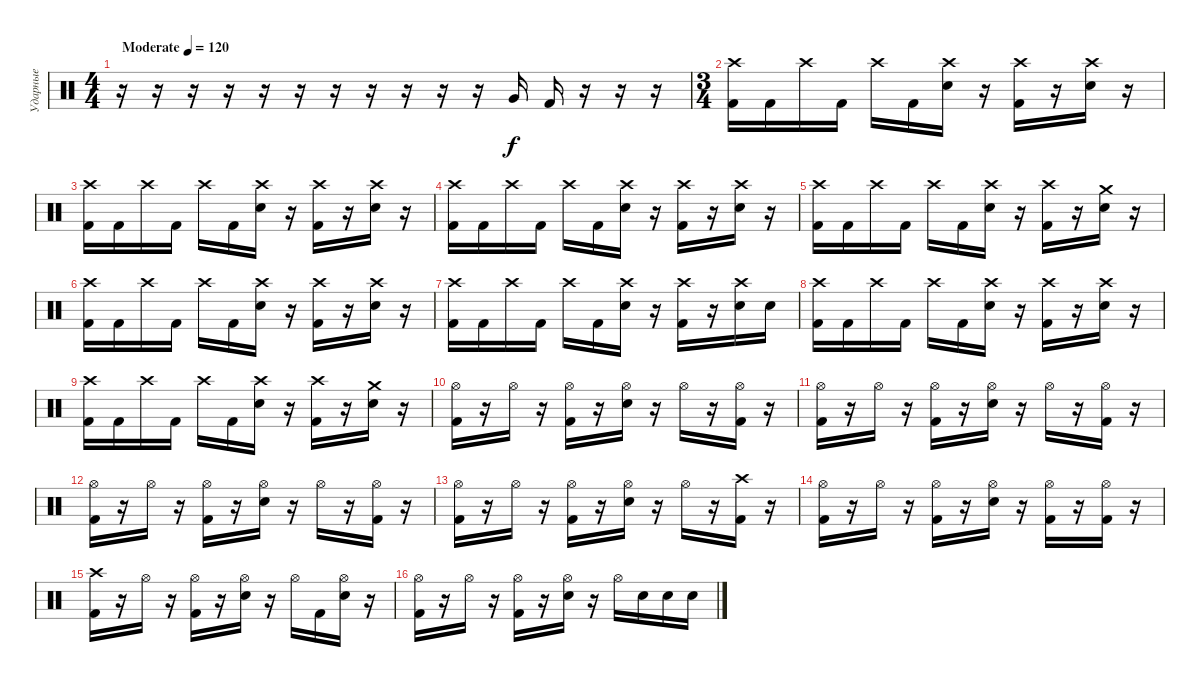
\track ("Ударные" "Ударные") {instrument percussion}
\staff {score}
\articulation defaults
\ts (4 4)
\tempo (120 "Moderate")
\clef neutral
\ks c
r.16{dy f} r.16 r.16 r.16 r.16 r.16 r.16 r.16 r.16 r.16 r.16 "Very Low Tom (hit)".16 "Kick (hit) 2".16 r.16 r.16 r.16 |
\ts (3 4)
("Crash high (hit)" "Kick (hit) 2").16 "Kick (hit) 2".16 "Crash high (hit)".16 "Kick (hit) 2".16 "Crash high (hit)".16 "Kick (hit) 2".16 ("Crash high (hit)" "Electric Snare (hit)").16 r.16 ("Crash high (hit)" "Kick (hit) 2").16 r.16 ("Crash high (hit)" "Electric Snare (hit)").16 r.16 |
("Crash high (hit)" "Kick (hit) 2").16 "Kick (hit) 2".16 "Crash high (hit)".16 "Kick (hit) 2".16 "Crash high (hit)".16 "Kick (hit) 2".16 ("Crash high (hit)" "Electric Snare (hit)").16 r.16 ("Crash high (hit)" "Kick (hit) 2").16 r.16 ("Crash high (hit)" "Electric Snare (hit)").16 r.16 |
("Crash high (hit)" "Kick (hit) 2").16 "Kick (hit) 2".16 "Crash high (hit)".16 "Kick (hit) 2".16 "Crash high (hit)".16 "Kick (hit) 2".16 ("Crash high (hit)" "Electric Snare (hit)").16 r.16 ("Crash high (hit)" "Kick (hit) 2").16 r.16 ("Crash high (hit)" "Electric Snare (hit)").16 r.16 |
("Crash high (hit)" "Kick (hit) 2").16 "Kick (hit) 2".16 "Crash high (hit)".16 "Kick (hit) 2".16 "Crash high (hit)".16 "Kick (hit) 2".16 ("Crash high (hit)" "Electric Snare (hit)").16 r.16 ("Crash high (hit)" "Kick (hit) 2").16 r.16 ("Crash medium (hit)" "Electric Snare (hit)").16 r.16 |
("Crash high (hit)" "Kick (hit) 2").16 "Kick (hit) 2".16 "Crash high (hit)".16 "Kick (hit) 2".16 "Crash high (hit)".16 "Kick (hit) 2".16 ("Crash high (hit)" "Electric Snare (hit)").16 r.16 ("Crash high (hit)" "Kick (hit) 2").16 r.16 ("Crash high (hit)" "Electric Snare (hit)").16 r.16 |
("Crash high (hit)" "Kick (hit) 2").16 "Kick (hit) 2".16 "Crash high (hit)".16 "Kick (hit) 2".16 "Crash high (hit)".16 "Kick (hit) 2".16 ("Crash high (hit)" "Electric Snare (hit)").16 r.16 ("Crash high (hit)" "Kick (hit) 2").16 r.16 ("Crash high (hit)" "Electric Snare (hit)").16 "Electric Snare (hit)".16 |
("Crash high (hit)" "Kick (hit) 2").16 "Kick (hit) 2".16 "Crash high (hit)".16 "Kick (hit) 2".16 "Crash high (hit)".16 "Kick (hit) 2".16 ("Crash high (hit)" "Electric Snare (hit)").16 r.16 ("Crash high (hit)" "Kick (hit) 2").16 r.16 ("Crash high (hit)" "Electric Snare (hit)").16 r.16 |
("Crash high (hit)" "Kick (hit) 2").16 "Kick (hit) 2".16 "Crash high (hit)".16 "Kick (hit) 2".16 "Crash high (hit)".16 "Kick (hit) 2".16 ("Crash high (hit)" "Electric Snare (hit)").16 r.16 ("Crash high (hit)" "Kick (hit) 2").16 r.16 ("Crash medium (hit)" "Electric Snare (hit)").16 r.16 |
("Hi-Hat (open)" "Kick (hit) 2").16 r.16 "Hi-Hat (open)".16 r.16 ("Hi-Hat (open)" "Kick (hit) 2").16 r.16 ("Hi-Hat (open)" "Electric Snare (hit)").16 r.16 "Hi-Hat (open)".16 r.16 ("Hi-Hat (open)" "Kick (hit) 2").16 r.16 |
("Hi-Hat (open)" "Kick (hit) 2").16 r.16 "Hi-Hat (open)".16 r.16 ("Hi-Hat (open)" "Kick (hit) 2").16 r.16 ("Hi-Hat (open)" "Electric Snare (hit)").16 r.16 "Hi-Hat (open)".16 r.16 ("Hi-Hat (open)" "Kick (hit) 2").16 r.16 |
("Hi-Hat (open)" "Kick (hit) 2").16 r.16 "Hi-Hat (open)".16 r.16 ("Hi-Hat (open)" "Kick (hit) 2").16 r.16 ("Hi-Hat (open)" "Electric Snare (hit)").16 r.16 "Hi-Hat (open)".16 r.16 ("Hi-Hat (open)" "Kick (hit) 2").16 r.16 |
("Hi-Hat (open)" "Kick (hit) 2").16 r.16 "Hi-Hat (open)".16 r.16 ("Hi-Hat (open)" "Kick (hit) 2").16 r.16 ("Hi-Hat (open)" "Electric Snare (hit)").16 r.16 "Hi-Hat (open)".16 r.16 ("Crash high (hit)" "Kick (hit) 2").16 r.16 |
("Hi-Hat (open)" "Kick (hit) 2").16 r.16 "Hi-Hat (open)".16 r.16 ("Hi-Hat (open)" "Kick (hit) 2").16 r.16 ("Hi-Hat (open)" "Electric Snare (hit)").16 r.16 ("Hi-Hat (open)" "Kick (hit) 2").16 r.16 ("Hi-Hat (open)" "Kick (hit) 2").16 r.16 |
("Crash high (hit)" "Kick (hit) 2").16 r.16 "Hi-Hat (open)".16 r.16 ("Hi-Hat (open)" "Kick (hit) 2").16 r.16 ("Hi-Hat (open)" "Electric Snare (hit)").16 r.16 "Hi-Hat (open)".16 "Kick (hit) 2".16 ("Hi-Hat (open)" "Electric Snare (hit)").16 r.16 |
("Hi-Hat (open)" "Kick (hit) 2").16 r.16 "Hi-Hat (open)".16 r.16 ("Hi-Hat (open)" "Kick (hit) 2").16 r.16 ("Hi-Hat (open)" "Electric Snare (hit)").16 r.16 "Hi-Hat (open)".16 "Electric Snare (hit)".16 "Electric Snare (hit)".16 "Electric Snare (hit)".16
